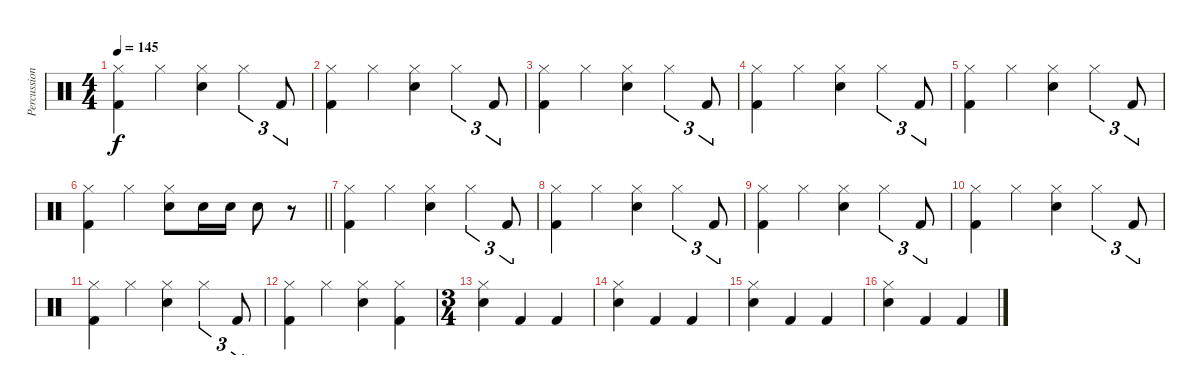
\track ("Percussion" "Percussion") {instrument percussion}
\staff {score}
\articulation defaults
\ts (4 4)
\tempo 145
\clef neutral
\ks c
("Hi-Hat (closed)" "Kick (hit) 2").4{dy f} "Hi-Hat (closed)".4 ("Hi-Hat (closed)" "Electric Snare (hit)").4 "Hi-Hat (closed)".4{tu (3 2)} "Kick (hit) 2".8{tu (3 2)} |
("Hi-Hat (closed)" "Kick (hit) 2").4 "Hi-Hat (closed)".4 ("Hi-Hat (closed)" "Electric Snare (hit)").4 "Hi-Hat (closed)".4{tu (3 2)} "Kick (hit) 2".8{tu (3 2)} |
("Hi-Hat (closed)" "Kick (hit) 2").4 "Hi-Hat (closed)".4 ("Hi-Hat (closed)" "Electric Snare (hit)").4 "Hi-Hat (closed)".4{tu (3 2)} "Kick (hit) 2".8{tu (3 2)} |
("Hi-Hat (closed)" "Kick (hit) 2").4 "Hi-Hat (closed)".4 ("Hi-Hat (closed)" "Electric Snare (hit)").4 "Hi-Hat (closed)".4{tu (3 2)} "Kick (hit) 2".8{tu (3 2)} |
("Hi-Hat (closed)" "Kick (hit) 2").4 "Hi-Hat (closed)".4 ("Hi-Hat (closed)" "Electric Snare (hit)").4 "Hi-Hat (closed)".4{tu (3 2)} "Kick (hit) 2".8{tu (3 2)} |
\barLineRight lightlight
("Hi-Hat (closed)" "Kick (hit) 2").4 "Hi-Hat (closed)".4 ("Hi-Hat (closed)" "Electric Snare (hit)").8 "Electric Snare (hit)".16 "Electric Snare (hit)".16 "Electric Snare (hit)".8 r.8 |
("Hi-Hat (closed)" "Kick (hit) 2").4 "Hi-Hat (closed)".4 ("Hi-Hat (closed)" "Electric Snare (hit)").4 "Hi-Hat (closed)".4{tu (3 2)} "Kick (hit) 2".8{tu (3 2)} |
("Hi-Hat (closed)" "Kick (hit) 2").4 "Hi-Hat (closed)".4 ("Hi-Hat (closed)" "Electric Snare (hit)").4 "Hi-Hat (closed)".4{tu (3 2)} "Kick (hit) 2".8{tu (3 2)} |
("Hi-Hat (closed)" "Kick (hit) 2").4 "Hi-Hat (closed)".4 ("Hi-Hat (closed)" "Electric Snare (hit)").4 "Hi-Hat (closed)".4{tu (3 2)} "Kick (hit) 2".8{tu (3 2)} |
("Hi-Hat (closed)" "Kick (hit) 2").4 "Hi-Hat (closed)".4 ("Hi-Hat (closed)" "Electric Snare (hit)").4 "Hi-Hat (closed)".4{tu (3 2)} "Kick (hit) 2".8{tu (3 2)} |
("Hi-Hat (closed)" "Kick (hit) 2").4 "Hi-Hat (closed)".4 ("Hi-Hat (closed)" "Electric Snare (hit)").4 "Hi-Hat (closed)".4{tu (3 2)} "Kick (hit) 2".8{tu (3 2)} |
("Hi-Hat (closed)" "Kick (hit) 2").4 "Hi-Hat (closed)".4 ("Hi-Hat (closed)" "Electric Snare (hit)").4 ("Hi-Hat (closed)" "Kick (hit) 2").4 |
\ts (3 4)
("Hi-Hat (closed)" "Electric Snare (hit)").4 "Kick (hit) 2".4 "Kick (hit) 2".4 |
("Hi-Hat (closed)" "Electric Snare (hit)").4 "Kick (hit) 2".4 "Kick (hit) 2".4 |
("Hi-Hat (closed)" "Electric Snare (hit)").4 "Kick (hit) 2".4 "Kick (hit) 2".4 |
("Hi-Hat (closed)" "Electric Snare (hit)").4 "Kick (hit) 2".4 "Kick (hit) 2".4
